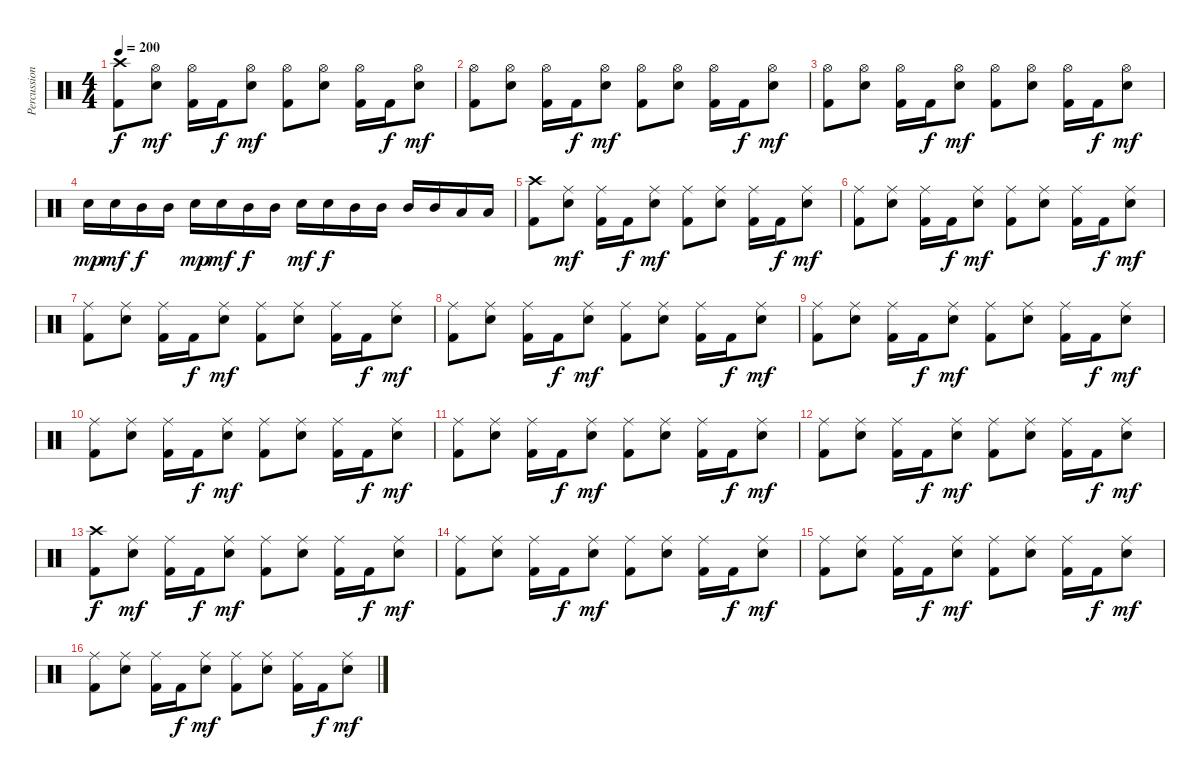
\track ("Percussions" "Percussion") {instrument percussion}
\staff {score}
\articulation defaults
\ts (4 4)
\tempo 200
\clef neutral
\ks c
("Crash high (hit)" "Kick (hit) 2").8{dy f} ("Hi-Hat (open)" "Snare (hit) 2").8{dy mf} ("Hi-Hat (open)" "Kick (hit) 2").16 "Kick (hit) 2".16{dy f} ("Hi-Hat (open)" "Snare (hit) 2").8{dy mf} ("Hi-Hat (open)" "Kick (hit) 2").8 ("Hi-Hat (open)" "Snare (hit) 2").8 ("Hi-Hat (open)" "Kick (hit) 2").16 "Kick (hit) 2".16{dy f} ("Hi-Hat (open)" "Snare (hit) 2").8{dy mf} |
("Hi-Hat (open)" "Kick (hit) 2").8 ("Hi-Hat (open)" "Snare (hit) 2").8 ("Hi-Hat (open)" "Kick (hit) 2").16 "Kick (hit) 2".16{dy f} ("Hi-Hat (open)" "Snare (hit) 2").8{dy mf} ("Hi-Hat (open)" "Kick (hit) 2").8 ("Hi-Hat (open)" "Snare (hit) 2").8 ("Hi-Hat (open)" "Kick (hit) 2").16 "Kick (hit) 2".16{dy f} ("Hi-Hat (open)" "Snare (hit) 2").8{dy mf} |
("Hi-Hat (open)" "Kick (hit) 2").8 ("Hi-Hat (open)" "Snare (hit) 2").8 ("Hi-Hat (open)" "Kick (hit) 2").16 "Kick (hit) 2".16{dy f} ("Hi-Hat (open)" "Snare (hit) 2").8{dy mf} ("Hi-Hat (open)" "Kick (hit) 2").8 ("Hi-Hat (open)" "Snare (hit) 2").8 ("Hi-Hat (open)" "Kick (hit) 2").16 "Kick (hit) 2".16{dy f} ("Hi-Hat (open)" "Snare (hit) 2").8{dy mf} |
"Snare (hit) 2".16{dy mp} "Snare (hit) 2".16{dy mf} "Mid Tom (hit)".16{dy f} "Mid Tom (hit)".16 "Snare (hit) 2".16{dy mp} "Snare (hit) 2".16{dy mf} "Mid Tom (hit)".16{dy f} "Mid Tom (hit)".16 "Snare (hit) 2".16{dy mf} "Snare (hit) 2".16{dy f} "Mid Tom (hit)".16 "Mid Tom (hit)".16 "Mid Tom (hit)".16 "Mid Tom (hit)".16 "Low Tom (hit)".16 "Low Tom (hit)".16 |
("Crash high (hit)" "Kick (hit) 2").8 ("Ride (middle)" "Snare (hit) 2").8{dy mf} ("Ride (middle)" "Kick (hit) 2").16 "Kick (hit) 2".16{dy f} ("Ride (middle)" "Snare (hit) 2").8{dy mf} ("Ride (middle)" "Kick (hit) 2").8 ("Ride (middle)" "Snare (hit) 2").8 ("Ride (middle)" "Kick (hit) 2").16 "Kick (hit) 2".16{dy f} ("Ride (middle)" "Snare (hit) 2").8{dy mf} |
("Ride (middle)" "Kick (hit) 2").8 ("Ride (middle)" "Snare (hit) 2").8 ("Ride (middle)" "Kick (hit) 2").16 "Kick (hit) 2".16{dy f} ("Ride (middle)" "Snare (hit) 2").8{dy mf} ("Ride (middle)" "Kick (hit) 2").8 ("Ride (middle)" "Snare (hit) 2").8 ("Ride (middle)" "Kick (hit) 2").16 "Kick (hit) 2".16{dy f} ("Ride (middle)" "Snare (hit) 2").8{dy mf} |
("Ride (middle)" "Kick (hit) 2").8 ("Ride (middle)" "Snare (hit) 2").8 ("Ride (middle)" "Kick (hit) 2").16 "Kick (hit) 2".16{dy f} ("Ride (middle)" "Snare (hit) 2").8{dy mf} ("Ride (middle)" "Kick (hit) 2").8 ("Ride (middle)" "Snare (hit) 2").8 ("Ride (middle)" "Kick (hit) 2").16 "Kick (hit) 2".16{dy f} ("Ride (middle)" "Snare (hit) 2").8{dy mf} |
("Ride (middle)" "Kick (hit) 2").8 ("Ride (middle)" "Snare (hit) 2").8 ("Ride (middle)" "Kick (hit) 2").16 "Kick (hit) 2".16{dy f} ("Ride (middle)" "Snare (hit) 2").8{dy mf} ("Ride (middle)" "Kick (hit) 2").8 ("Ride (middle)" "Snare (hit) 2").8 ("Ride (middle)" "Kick (hit) 2").16 "Kick (hit) 2".16{dy f} ("Ride (middle)" "Snare (hit) 2").8{dy mf} |
("Ride (middle)" "Kick (hit) 2").8 ("Ride (middle)" "Snare (hit) 2").8 ("Ride (middle)" "Kick (hit) 2").16 "Kick (hit) 2".16{dy f} ("Ride (middle)" "Snare (hit) 2").8{dy mf} ("Ride (middle)" "Kick (hit) 2").8 ("Ride (middle)" "Snare (hit) 2").8 ("Ride (middle)" "Kick (hit) 2").16 "Kick (hit) 2".16{dy f} ("Ride (middle)" "Snare (hit) 2").8{dy mf} |
("Ride (middle)" "Kick (hit) 2").8 ("Ride (middle)" "Snare (hit) 2").8 ("Ride (middle)" "Kick (hit) 2").16 "Kick (hit) 2".16{dy f} ("Ride (middle)" "Snare (hit) 2").8{dy mf} ("Ride (middle)" "Kick (hit) 2").8 ("Ride (middle)" "Snare (hit) 2").8 ("Ride (middle)" "Kick (hit) 2").16 "Kick (hit) 2".16{dy f} ("Ride (middle)" "Snare (hit) 2").8{dy mf} |
("Ride (middle)" "Kick (hit) 2").8 ("Ride (middle)" "Snare (hit) 2").8 ("Ride (middle)" "Kick (hit) 2").16 "Kick (hit) 2".16{dy f} ("Ride (middle)" "Snare (hit) 2").8{dy mf} ("Ride (middle)" "Kick (hit) 2").8 ("Ride (middle)" "Snare (hit) 2").8 ("Ride (middle)" "Kick (hit) 2").16 "Kick (hit) 2".16{dy f} ("Ride (middle)" "Snare (hit) 2").8{dy mf} |
("Ride (middle)" "Kick (hit) 2").8 ("Ride (middle)" "Snare (hit) 2").8 ("Ride (middle)" "Kick (hit) 2").16 "Kick (hit) 2".16{dy f} ("Ride (middle)" "Snare (hit) 2").8{dy mf} ("Ride (middle)" "Kick (hit) 2").8 ("Ride (middle)" "Snare (hit) 2").8 ("Ride (middle)" "Kick (hit) 2").16 "Kick (hit) 2".16{dy f} ("Ride (middle)" "Snare (hit) 2").8{dy mf} |
("Crash high (hit)" "Kick (hit) 2").8{dy f} ("Ride (middle)" "Snare (hit) 2").8{dy mf} ("Ride (middle)" "Kick (hit) 2").16 "Kick (hit) 2".16{dy f} ("Ride (middle)" "Snare (hit) 2").8{dy mf} ("Ride (middle)" "Kick (hit) 2").8 ("Ride (middle)" "Snare (hit) 2").8 ("Ride (middle)" "Kick (hit) 2").16 "Kick (hit) 2".16{dy f} ("Ride (middle)" "Snare (hit) 2").8{dy mf} |
("Ride (middle)" "Kick (hit) 2").8 ("Ride (middle)" "Snare (hit) 2").8 ("Ride (middle)" "Kick (hit) 2").16 "Kick (hit) 2".16{dy f} ("Ride (middle)" "Snare (hit) 2").8{dy mf} ("Ride (middle)" "Kick (hit) 2").8 ("Ride (middle)" "Snare (hit) 2").8 ("Ride (middle)" "Kick (hit) 2").16 "Kick (hit) 2".16{dy f} ("Ride (middle)" "Snare (hit) 2").8{dy mf} |
("Ride (middle)" "Kick (hit) 2").8 ("Ride (middle)" "Snare (hit) 2").8 ("Ride (middle)" "Kick (hit) 2").16 "Kick (hit) 2".16{dy f} ("Ride (middle)" "Snare (hit) 2").8{dy mf} ("Ride (middle)" "Kick (hit) 2").8 ("Ride (middle)" "Snare (hit) 2").8 ("Ride (middle)" "Kick (hit) 2").16 "Kick (hit) 2".16{dy f} ("Ride (middle)" "Snare (hit) 2").8{dy mf} |
("Ride (middle)" "Kick (hit) 2").8 ("Ride (middle)" "Snare (hit) 2").8 ("Ride (middle)" "Kick (hit) 2").16 "Kick (hit) 2".16{dy f} ("Ride (middle)" "Snare (hit) 2").8{dy mf} ("Ride (middle)" "Kick (hit) 2").8 ("Ride (middle)" "Snare (hit) 2").8 ("Ride (middle)" "Kick (hit) 2").16 "Kick (hit) 2".16{dy f} ("Ride (middle)" "Snare (hit) 2").8{dy mf}
